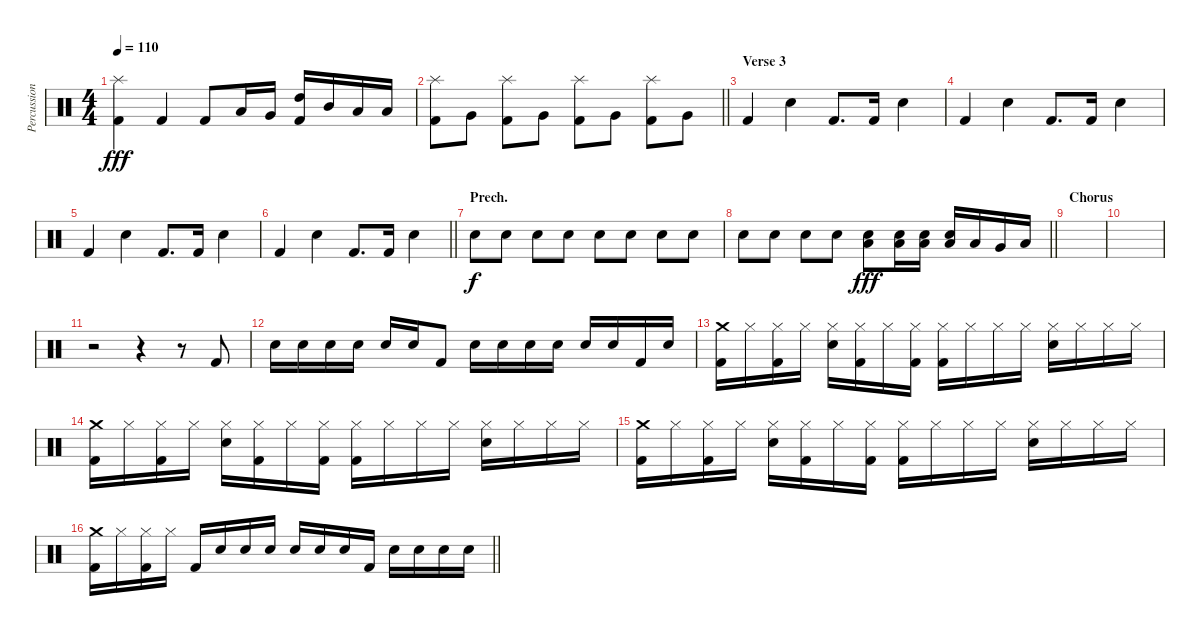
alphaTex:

\track ("Percussion" "Percussion") {instrument percussion}
\staff {score}
\articulation defaults
\ts (4 4)
\tempo 110
\clef neutral
\ks c
("Splash (hit)" "Kick (hit) 2").4{dy fff} "Kick (hit) 2".4 "Kick (hit) 2".8 "Low Floor Tom (hit)".16 "Very Low Tom (hit)".16 ("Kick (hit) 2" "High Tom (hit)").16 "Mid Tom (hit)".16 "Low Tom (hit)".16 "Low Floor Tom (hit)".16 |
\barLineRight lightlight
("Splash (hit)" "Kick (hit) 2").8 "Very Low Tom (hit)".8 ("Splash (hit)" "Kick (hit) 2").8 "Very Low Tom (hit)".8 ("Splash (hit)" "Kick (hit) 2").8 "Very Low Tom (hit)".8 ("Splash (hit)" "Kick (hit) 2").8 "Very Low Tom (hit)".8 |
\section ("" "Verse 3")
"Kick (hit) 2".4 "Snare (hit) 2".4 "Kick (hit) 2".8{d} "Kick (hit) 2".16 "Snare (hit) 2".4 |
"Kick (hit) 2".4 "Snare (hit) 2".4 "Kick (hit) 2".8{d} "Kick (hit) 2".16 "Snare (hit) 2".4 |
"Kick (hit) 2".4 "Snare (hit) 2".4 "Kick (hit) 2".8{d} "Kick (hit) 2".16 "Snare (hit) 2".4 |
\barLineRight lightlight "Kick (hit) 2".4 "Snare (hit) 2".4 "Kick (hit) 2".8{d} "Kick (hit) 2".16 "Snare (hit) 2".4
|
\section ("" "Prech.")
"Snare (hit) 2".8{dy f} "Snare (hit) 2".8 "Snare (hit) 2".8 "Snare (hit) 2".8 "Snare (hit) 2".8 "Snare (hit) 2".8 "Snare (hit) 2".8 "Snare (hit) 2".8 |
\barLineRight lightlight "Snare (hit) 2".8 "Snare (hit) 2".8 "Snare (hit) 2".8 "Snare (hit) 2".8
("Snare (hit) 2" "Low Floor Tom (hit)").8{dy fff} ("Snare (hit) 2" "Low Floor Tom (hit)").16 ("Snare (hit) 2" "Low Floor Tom (hit)").16 ("Snare (hit) 2" "Low Floor Tom (hit)").16 "Low Tom (hit)".16 "Very Low Tom (hit)".16 "Low Floor Tom (hit)".16 |
\section ("" "Chorus")
|
|
r.2 r.4 r.8 "Kick (hit) 2".8 |
"Snare (hit) 2".16 "Snare (hit) 2".16 "Snare (hit) 2".16 "Snare (hit) 2".16 "Snare (hit) 2".16 "Snare (hit) 2".16 "Kick (hit) 2".8 "Snare (hit) 2".16 "Snare (hit) 2".16 "Snare (hit) 2".16 "Snare (hit) 2".16 "Snare (hit) 2".16 "Snare (hit) 2".16 "Kick (hit) 2".16 "Snare (hit) 2".16 |
("Crash medium (hit)" "Kick (hit) 2").16 "Hi-Hat (closed)".16 ("Hi-Hat (closed)" "Kick (hit) 2").16 "Hi-Hat (closed)".16 ("Hi-Hat (closed)" "Snare (hit) 2").16 ("Hi-Hat (closed)" "Kick (hit) 2").16 "Hi-Hat (closed)".16 ("Hi-Hat (closed)" "Kick (hit) 2").16 ("Hi-Hat (closed)" "Kick (hit) 2").16 "Hi-Hat (closed)".16 "Hi-Hat (closed)".16 "Hi-Hat (closed)".16 ("Hi-Hat (closed)" "Snare (hit) 2").16 "Hi-Hat (closed)".16 "Hi-Hat (closed)".16 "Hi-Hat (closed)".16 |
("Crash medium (hit)" "Kick (hit) 2").16 "Hi-Hat (closed)".16 ("Hi-Hat (closed)" "Kick (hit) 2").16 "Hi-Hat (closed)".16 ("Hi-Hat (closed)" "Snare (hit) 2").16 ("Hi-Hat (closed)" "Kick (hit) 2").16 "Hi-Hat (closed)".16 ("Hi-Hat (closed)" "Kick (hit) 2").16 ("Hi-Hat (closed)" "Kick (hit) 2").16 "Hi-Hat (closed)".16 "Hi-Hat (closed)".16 "Hi-Hat (closed)".16 ("Hi-Hat (closed)" "Snare (hit) 2").16 "Hi-Hat (closed)".16 "Hi-Hat (closed)".16 "Hi-Hat (closed)".16 |
("Crash medium (hit)" "Kick (hit) 2").16 "Hi-Hat (closed)".16 ("Hi-Hat (closed)" "Kick (hit) 2").16 "Hi-Hat (closed)".16 ("Hi-Hat (closed)" "Snare (hit) 2").16 ("Hi-Hat (closed)" "Kick (hit) 2").16 "Hi-Hat (closed)".16 ("Hi-Hat (closed)" "Kick (hit) 2").16 ("Hi-Hat (closed)" "Kick (hit) 2").16 "Hi-Hat (closed)".16 "Hi-Hat (closed)".16 "Hi-Hat (closed)".16 ("Hi-Hat (closed)" "Snare (hit) 2").16 "Hi-Hat (closed)".16 "Hi-Hat (closed)".16 "Hi-Hat (closed)".16 |
\barLineRight lightlight
("Crash medium (hit)" "Kick (hit) 2").16 "Hi-Hat (closed)".16 ("Hi-Hat (closed)" "Kick (hit) 2").16 "Hi-Hat (closed)".16 "Kick (hit) 2".16 "Snare (hit) 2".16 "Snare (hit) 2".16 "Snare (hit) 2".16 "Snare (hit) 2".16 "Snare (hit) 2".16 "Snare (hit) 2".16 "Kick (hit) 2".16 "Snare (hit) 2".16 "Snare (hit) 2".16 "Snare (hit) 2".16 "Snare (hit) 2".16
